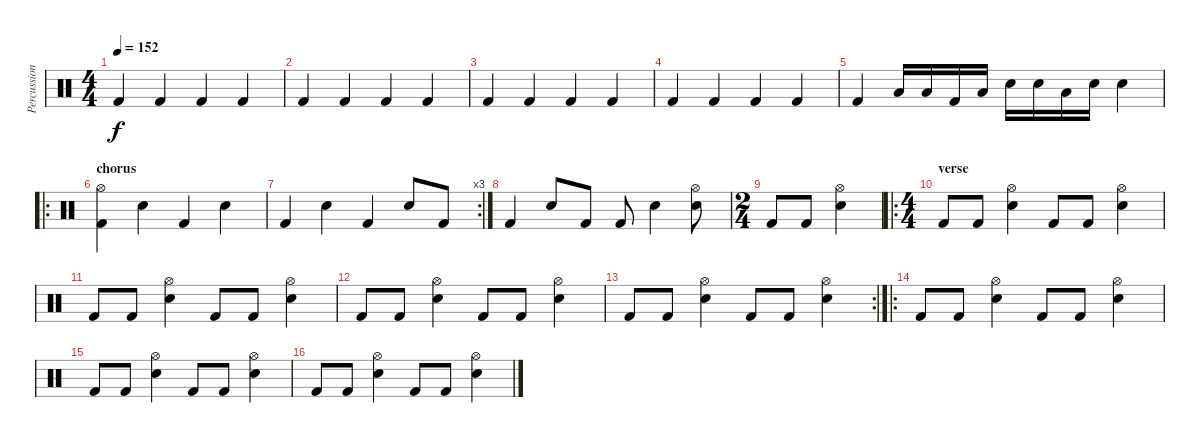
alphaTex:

\track ("Percussion" "Percussion") {instrument percussion}
\staff {score}
\articulation defaults
\ts (4 4)
\tempo 152
\clef neutral
\ks c "Kick (hit) 2".4{dy f} "Kick (hit) 2".4 "Kick (hit) 2".4 "Kick (hit) 2".4
|
"Kick (hit) 2".4 "Kick (hit) 2".4 "Kick (hit) 2".4 "Kick (hit) 2".4 |
"Kick (hit) 2".4 "Kick (hit) 2".4 "Kick (hit) 2".4 "Kick (hit) 2".4 |
"Kick (hit) 2".4 "Kick (hit) 2".4 "Kick (hit) 2".4 "Kick (hit) 2".4 |
"Kick (hit) 2".4 "Low Tom (hit)".16 "Low Tom (hit)".16 "Kick (hit) 2".16 "Low Tom (hit)".16 "Electric Snare (hit)".16 "Electric Snare (hit)".16 "Low Tom (hit)".16 "Electric Snare (hit)".16 "Electric Snare (hit)".4 |
\ro
\section ("" "chorus")
("Hi-Hat (open)" "Kick (hit) 2").4 "Electric Snare (hit)".4 "Kick (hit) 2".4 "Electric Snare (hit)".4 |
\rc 3 "Kick (hit) 2".4 "Electric Snare (hit)".4 "Kick (hit) 2".4 "Electric Snare (hit)".8 "Kick (hit) 2".8
|
"Kick (hit) 2".4 "Electric Snare (hit)".8 "Kick (hit) 2".8 "Kick (hit) 2".8 "Electric Snare (hit)".4 ("Hi-Hat (open)" "Electric Snare (hit)").8 |
\ts (2 4)
"Kick (hit) 2".8 "Kick (hit) 2".8 ("Hi-Hat (open)" "Electric Snare (hit)").4 |
\ro
\ts (4 4)
\section ("" "verse")
"Kick (hit) 2".8 "Kick (hit) 2".8 ("Hi-Hat (open)" "Electric Snare (hit)").4 "Kick (hit) 2".8 "Kick (hit) 2".8 ("Hi-Hat (open)" "Electric Snare (hit)").4 |
"Kick (hit) 2".8 "Kick (hit) 2".8 ("Hi-Hat (open)" "Electric Snare (hit)").4 "Kick (hit) 2".8 "Kick (hit) 2".8 ("Hi-Hat (open)" "Electric Snare (hit)").4 |
"Kick (hit) 2".8 "Kick (hit) 2".8 ("Hi-Hat (open)" "Electric Snare (hit)").4 "Kick (hit) 2".8 "Kick (hit) 2".8 ("Hi-Hat (open)" "Electric Snare (hit)").4 |
\rc 2 "Kick (hit) 2".8 "Kick (hit) 2".8
("Hi-Hat (open)" "Electric Snare (hit)").4 "Kick (hit) 2".8 "Kick (hit) 2".8 ("Hi-Hat (open)" "Electric Snare (hit)").4 |
\ro "Kick (hit) 2".8 "Kick (hit) 2".8
("Hi-Hat (open)" "Electric Snare (hit)").4 "Kick (hit) 2".8 "Kick (hit) 2".8 ("Hi-Hat (open)" "Electric Snare (hit)").4 |
"Kick (hit) 2".8 "Kick (hit) 2".8 ("Hi-Hat (open)" "Electric Snare (hit)").4 "Kick (hit) 2".8 "Kick (hit) 2".8 ("Hi-Hat (open)" "Electric Snare (hit)").4 |
"Kick (hit) 2".8 "Kick (hit) 2".8 ("Hi-Hat (open)" "Electric Snare (hit)").4 "Kick (hit) 2".8 "Kick (hit) 2".8 ("Hi-Hat (open)" "Electric Snare (hit)").4
